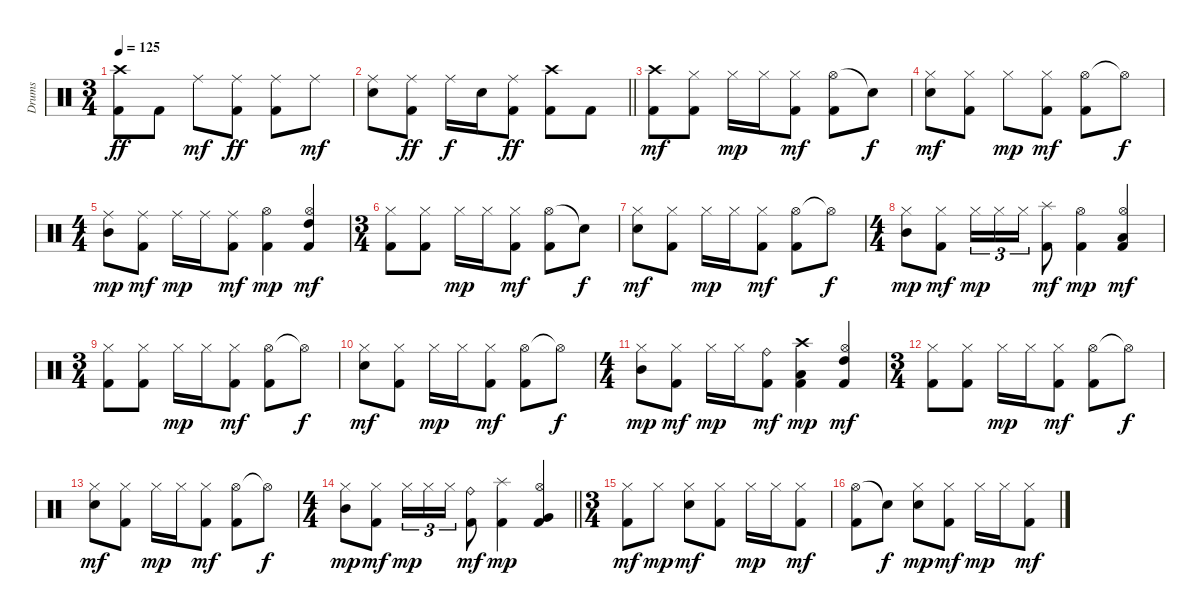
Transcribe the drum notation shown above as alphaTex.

\track ("Drums" "Drums") {instrument percussion}
\staff {score}
\articulation defaults
\ts (3 4)
\tempo 125
\clef neutral
\ks c
("Crash high (hit)" "Kick (hit) 2").8{dy ff} "Kick (hit) 2".8 "Ride (middle)".8{dy mf} ("Ride (middle)" "Kick (hit) 2").8{dy ff} ("Ride (middle)" "Kick (hit) 2").8 "Ride (middle)".8{dy mf} |
\barLineRight lightlight
("Ride (middle)" "Snare (hit) 2").8 ("Ride (middle)" "Kick (hit) 2").8{dy ff} "Ride (middle)".16{dy f} "Snare (hit) 2".16 ("Ride (middle)" "Kick (hit) 2").8{dy ff} ("Crash high (hit)" "Kick (hit) 2").8 "Kick (hit) 2".8 |
\section ("" "")
("Crash high (hit)" "Kick (hit) 2").8{dy mf} ("Hi-Hat (closed)" "Kick (hit) 2").8 "Hi-Hat (closed)".16{dy mp} "Hi-Hat (closed)".16 ("Hi-Hat (closed)" "Kick (hit) 2").8{dy mf} ("Hi-Hat (open)" "Kick (hit) 2").8 "Snare (hit)"{t}.8{dy f} |
("Hi-Hat (closed)" "Snare (hit) 2").8{dy mf} ("Hi-Hat (closed)" "Kick (hit) 2").8 "Hi-Hat (closed)".8{dy mp} ("Hi-Hat (closed)" "Kick (hit) 2").8{dy mf} ("Hi-Hat (open)" "Kick (hit) 2").8 "Hi-Hat (open)"{t}.8{dy f} |
\ts (4 4)
("Ride (middle)" "Mid Tom (hit)").8{dy mp} ("Ride (middle)" "Kick (hit) 2").8{dy mf} "Ride (middle)".16{dy mp} "Ride (middle)".16 ("Ride (middle)" "Kick (hit) 2").8{dy mf} ("Hi-Hat (open)" "Kick (hit) 2").4{dy mp} ("Hi-Hat (open)" "High Tom (hit)" "Kick (hit) 2").4{dy mf} |
\ts (3 4)
("Hi-Hat (closed)" "Kick (hit) 2").8 ("Hi-Hat (closed)" "Kick (hit) 2").8 "Hi-Hat (closed)".16{dy mp} "Hi-Hat (closed)".16 ("Hi-Hat (closed)" "Kick (hit) 2").8{dy mf} ("Hi-Hat (open)" "Kick (hit) 2").8 "Snare (hit)"{t}.8{dy f} |
("Hi-Hat (closed)" "Snare (hit) 2").8{dy mf} ("Hi-Hat (closed)" "Kick (hit) 2").8 "Hi-Hat (closed)".16{dy mp} "Hi-Hat (closed)".16 ("Hi-Hat (closed)" "Kick (hit) 2").8{dy mf} ("Hi-Hat (open)" "Kick (hit) 2").8 "Hi-Hat (open)"{t}.8{dy f} |
\ts (4 4)
("Hi-Hat (closed)" "Mid Tom (hit)").8{dy mp} ("Hi-Hat (closed)" "Kick (hit) 2").8{dy mf} "Hi-Hat (closed)".16{tu (3 2) dy mp} "Hi-Hat (closed)".16{tu (3 2)} "Hi-Hat (closed)".16{tu (3 2)} ("Splash (hit)" "Kick (hit) 2").8{dy mf} ("Hi-Hat (open)" "Kick (hit) 2").4{dy mp} ("Hi-Hat (open)" "Low Tom (hit)" "Kick (hit) 2").4{dy mf} |
\ts (3 4)
("Hi-Hat (closed)" "Kick (hit) 2").8 ("Hi-Hat (closed)" "Kick (hit) 2").8 "Hi-Hat (closed)".16{dy mp} "Hi-Hat (closed)".16 ("Hi-Hat (closed)" "Kick (hit) 2").8{dy mf} ("Hi-Hat (open)" "Kick (hit) 2").8 "Hi-Hat (open)"{t}.8{dy f} |
("Hi-Hat (closed)" "Snare (hit) 2").8{dy mf} ("Hi-Hat (closed)" "Kick (hit) 2").8 "Hi-Hat (closed)".16{dy mp} "Hi-Hat (closed)".16 ("Hi-Hat (closed)" "Kick (hit) 2").8{dy mf} ("Hi-Hat (open)" "Kick (hit) 2").8 "Hi-Hat (open)"{t}.8{dy f} |
\ts (4 4)
("Hi-Hat (closed)" "Mid Tom (hit)").8{dy mp} ("Hi-Hat (closed)" "Kick (hit) 2").8{dy mf} "Hi-Hat (closed)".16{dy mp} "Hi-Hat (closed)".16 ("Ride (bell)" "Kick (hit) 2").8{dy mf} ("Crash high (hit)" "Low Tom (hit)" "Kick (hit) 2").4{dy mp} ("Hi-Hat (open)" "High Tom (hit)" "Kick (hit) 2").4{dy mf} |
\ts (3 4)
("Hi-Hat (closed)" "Kick (hit) 2").8 ("Hi-Hat (closed)" "Kick (hit) 2").8 "Hi-Hat (closed)".16{dy mp} "Hi-Hat (closed)".16 ("Hi-Hat (closed)" "Kick (hit) 2").8{dy mf} ("Hi-Hat (open)" "Kick (hit) 2").8 "Hi-Hat (open)"{t}.8{dy f} |
("Hi-Hat (closed)" "Snare (hit) 2").8{dy mf} ("Hi-Hat (closed)" "Kick (hit) 2").8 "Hi-Hat (closed)".16{dy mp} "Hi-Hat (closed)".16 ("Hi-Hat (closed)" "Kick (hit) 2").8{dy mf} ("Hi-Hat (open)" "Kick (hit) 2").8 "Hi-Hat (open)"{t}.8{dy f} |
\ts (4 4)
\barLineRight lightlight
("Hi-Hat (closed)" "Mid Tom (hit)").8{dy mp} ("Hi-Hat (closed)" "Kick (hit) 2").8{dy mf} "Hi-Hat (closed)".16{tu (3 2) dy mp} "Hi-Hat (closed)".16{tu (3 2)} "Hi-Hat (closed)".16{tu (3 2)} ("Ride (bell)" "Kick (hit) 2").8{dy mf} ("Splash (hit)" "Kick (hit) 2").4{dy mp} ("Hi-Hat (open)" "Very Low Tom (hit)" "Kick (hit) 2").4 |
\ts (3 4)
\section ("" "")
("Hi-Hat (closed)" "Kick (hit) 2").8{dy mf} "Hi-Hat (closed)".8{dy mp} ("Hi-Hat (closed)" "Snare (hit) 2").8{dy mf} ("Hi-Hat (closed)" "Kick (hit) 2").8 "Hi-Hat (closed)".16{dy mp} "Hi-Hat (closed)".16 ("Hi-Hat (closed)" "Kick (hit) 2").8{dy mf} |
("Hi-Hat (open)" "Kick (hit) 2").8 "Snare (hit)"{t}.8{dy f} ("Hi-Hat (closed)" "Snare (hit) 2").8{dy mp} ("Hi-Hat (closed)" "Kick (hit) 2").8{dy mf} "Hi-Hat (closed)".16{dy mp} "Hi-Hat (closed)".16 ("Hi-Hat (closed)" "Kick (hit) 2").8{dy mf}
